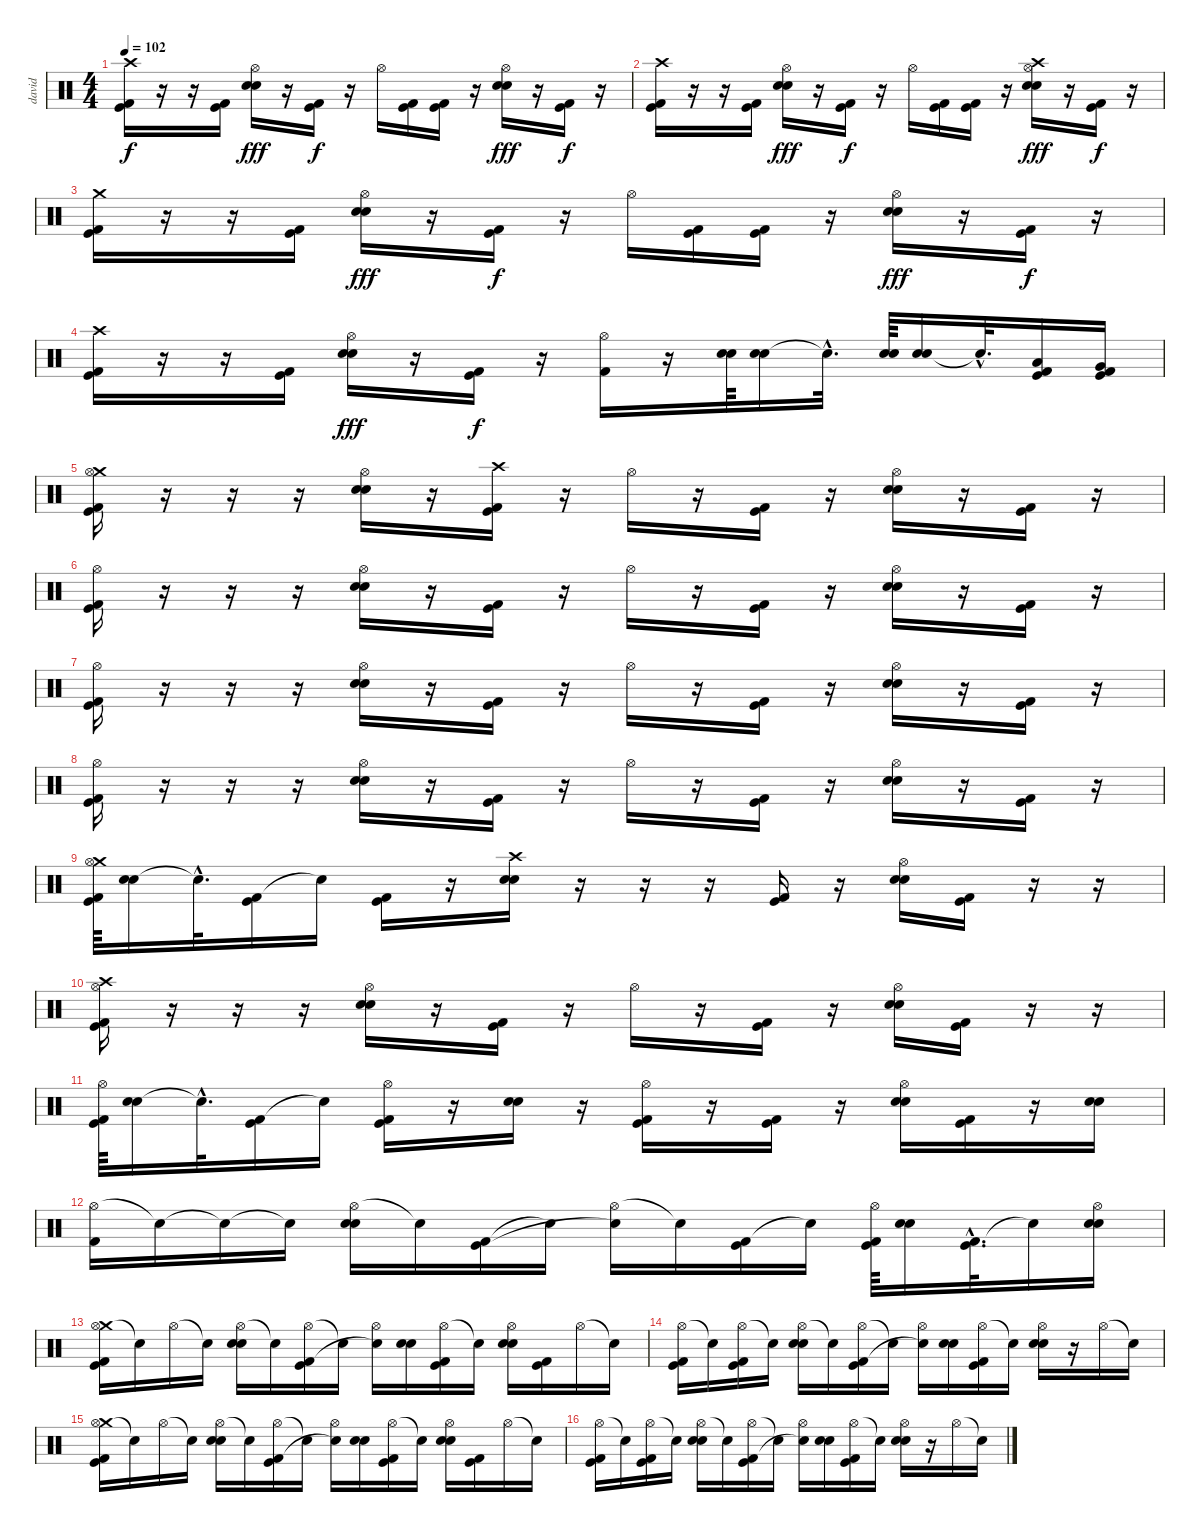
\track ("david" "david") {instrument percussion}
\staff {score}
\articulation defaults
\ts (4 4)
\tempo 102
\clef neutral
\ks c
("Crash high (hit)" "Kick (hit) 2" "Kick (hit)").16{dy f} r.16 r.16 ("Kick (hit) 2" "Kick (hit)").16 ("Hi-Hat (open)" "Electric Snare (hit)" "Snare (hit) 2").16{dy fff} r.16 ("Kick (hit) 2" "Kick (hit)").16{dy f} r.16 "Hi-Hat (open)".16 ("Kick (hit) 2" "Kick (hit)").16 ("Kick (hit) 2" "Kick (hit)").16 r.16 ("Hi-Hat (open)" "Electric Snare (hit)" "Snare (hit) 2").16{dy fff} r.16 ("Kick (hit) 2" "Kick (hit)").16{dy f} r.16 |
("Crash high (hit)" "Kick (hit) 2" "Kick (hit)").16 r.16 r.16 ("Kick (hit) 2" "Kick (hit)").16 ("Hi-Hat (open)" "Electric Snare (hit)" "Snare (hit) 2").16{dy fff} r.16 ("Kick (hit) 2" "Kick (hit)").16{dy f} r.16 "Hi-Hat (open)".16 ("Kick (hit) 2" "Kick (hit)").16 ("Kick (hit) 2" "Kick (hit)").16 r.16 ("Hi-Hat (open)" "Crash high (hit)" "Electric Snare (hit)" "Snare (hit) 2").16{dy fff} r.16 ("Kick (hit) 2" "Kick (hit)").16{dy f} r.16 |
("Crash medium (hit)" "Kick (hit) 2" "Kick (hit)").16 r.16 r.16 ("Kick (hit) 2" "Kick (hit)").16 ("Hi-Hat (open)" "Electric Snare (hit)" "Snare (hit) 2").16{dy fff} r.16 ("Kick (hit) 2" "Kick (hit)").16{dy f} r.16 "Hi-Hat (open)".16 ("Kick (hit) 2" "Kick (hit)").16 ("Kick (hit) 2" "Kick (hit)").16 r.16 ("Hi-Hat (open)" "Electric Snare (hit)" "Snare (hit) 2").16{dy fff} r.16 ("Kick (hit) 2" "Kick (hit)").16{dy f} r.16 |
("Crash high (hit)" "Kick (hit) 2" "Kick (hit)").16 r.16 r.16 ("Kick (hit) 2" "Kick (hit)").16 ("Hi-Hat (open)" "Electric Snare (hit)" "Snare (hit) 2").16{dy fff} r.16 ("Kick (hit) 2" "Kick (hit)").16{dy f} r.16 ("Hi-Hat (open)" "Kick (hit) 2").16 r.16 ("Electric Snare (hit)" "Snare (hit) 2").64 ("Electric Snare (hit)" "Snare (hit) 2").16 "Electric Snare (hit)"{hac t}.32{d} ("Electric Snare (hit)" "Snare (hit) 2").64 ("Electric Snare (hit)" "Snare (hit) 2").16 "Snare (hit)"{hac t}.32{d} ("Low Tom (hit)" "Kick (hit) 2" "Kick (hit)").16 ("Very Low Tom (hit)" "Kick (hit) 2" "Kick (hit)").16 |
("Crash medium (hit)" "Hi-Hat (open)" "Kick (hit) 2" "Kick (hit)").16 r.16 r.16 r.16 ("Hi-Hat (open)" "Electric Snare (hit)" "Snare (hit) 2").16 r.16 ("Crash high (hit)" "Kick (hit) 2" "Kick (hit)").16 r.16 "Hi-Hat (open)".16 r.16 ("Kick (hit) 2" "Kick (hit)").16 r.16 ("Hi-Hat (open)" "Electric Snare (hit)" "Snare (hit) 2").16 r.16 ("Kick (hit) 2" "Kick (hit)").16 r.16 |
("Hi-Hat (open)" "Kick (hit) 2" "Kick (hit)").16 r.16 r.16 r.16 ("Hi-Hat (open)" "Electric Snare (hit)" "Snare (hit) 2").16 r.16 ("Kick (hit) 2" "Kick (hit)").16 r.16 "Hi-Hat (open)".16 r.16 ("Kick (hit) 2" "Kick (hit)").16 r.16 ("Hi-Hat (open)" "Electric Snare (hit)" "Snare (hit) 2").16 r.16 ("Kick (hit) 2" "Kick (hit)").16 r.16 |
("Hi-Hat (open)" "Kick (hit) 2" "Kick (hit)").16 r.16 r.16 r.16 ("Hi-Hat (open)" "Electric Snare (hit)" "Snare (hit) 2").16 r.16 ("Kick (hit) 2" "Kick (hit)").16 r.16 "Hi-Hat (open)".16 r.16 ("Kick (hit) 2" "Kick (hit)").16 r.16 ("Hi-Hat (open)" "Electric Snare (hit)" "Snare (hit) 2").16 r.16 ("Kick (hit) 2" "Kick (hit)").16 r.16 |
("Hi-Hat (open)" "Kick (hit) 2" "Kick (hit)").16 r.16 r.16 r.16 ("Hi-Hat (open)" "Electric Snare (hit)" "Snare (hit) 2").16 r.16 ("Kick (hit) 2" "Kick (hit)").16 r.16 "Hi-Hat (open)".16 r.16 ("Kick (hit) 2" "Kick (hit)").16 r.16 ("Hi-Hat (open)" "Electric Snare (hit)" "Snare (hit) 2").16 r.16 ("Kick (hit) 2" "Kick (hit)").16 r.16 |
("Crash medium (hit)" "Hi-Hat (open)" "Kick (hit) 2" "Kick (hit)").64 ("Electric Snare (hit)" "Snare (hit) 2").16 "Snare (hit)"{hac t}.32{d} ("Kick (hit) 2" "Kick (hit)").16 "Snare (hit)"{t}.16 ("Kick (hit) 2" "Kick (hit)").16 r.16 ("Crash high (hit)" "Electric Snare (hit)" "Snare (hit) 2").16 r.16 r.16 r.16 ("Kick (hit) 2" "Kick (hit)").16 r.16 ("Hi-Hat (open)" "Electric Snare (hit)" "Snare (hit) 2").16 ("Kick (hit) 2" "Kick (hit)").16 r.16 r.16 |
("Hi-Hat (open)" "Crash high (hit)" "Kick (hit) 2" "Kick (hit)").16 r.16 r.16 r.16 ("Hi-Hat (open)" "Electric Snare (hit)" "Snare (hit) 2").16 r.16 ("Kick (hit) 2" "Kick (hit)").16 r.16 "Hi-Hat (open)".16 r.16 ("Kick (hit) 2" "Kick (hit)").16 r.16 ("Hi-Hat (open)" "Electric Snare (hit)" "Snare (hit) 2").16 ("Kick (hit) 2" "Kick (hit)").16 r.16 r.16 |
("Hi-Hat (open)" "Kick (hit) 2" "Kick (hit)").64 ("Electric Snare (hit)" "Snare (hit) 2").16 "Snare (hit)"{hac t}.32{d} ("Kick (hit) 2" "Kick (hit)").16 "Snare (hit)"{t}.16 ("Hi-Hat (open)" "Kick (hit) 2" "Kick (hit)").16 r.16 ("Electric Snare (hit)" "Snare (hit) 2").16 r.16 ("Hi-Hat (open)" "Kick (hit) 2" "Kick (hit)").16 r.16 ("Kick (hit) 2" "Kick (hit)").16 r.16 ("Hi-Hat (open)" "Electric Snare (hit)" "Snare (hit) 2").16 ("Kick (hit) 2" "Kick (hit)").16 r.16 ("Electric Snare (hit)" "Snare (hit) 2").16 |
("Hi-Hat (open)" "Kick (hit) 2").16 "Snare (hit)"{t}.16 "Snare (hit)"{t}.16 "Snare (hit)"{t}.16 ("Hi-Hat (open)" "Electric Snare (hit)" "Snare (hit) 2").16 "Snare (hit)"{t}.16 ("Kick (hit) 2" "Kick (hit)").16 "Snare (hit)"{t}.16 ("Hi-Hat (open)" "Snare (hit)"{t}).16 "Snare (hit)"{t}.16 ("Kick (hit) 2" "Kick (hit)").16 "Snare (hit)"{t}.16 ("Hi-Hat (open)" "Kick (hit) 2" "Kick (hit)").64 ("Electric Snare (hit)" "Snare (hit) 2").16 ("Kick (hit) 2"{hac} "Kick (hit)"{hac}).32{d} "Snare (hit)"{t}.16 ("Hi-Hat (open)" "Electric Snare (hit)" "Snare (hit) 2").16 |
("Crash medium (hit)" "Hi-Hat (open)" "Kick (hit) 2" "Kick (hit)").16 "Snare (hit)"{t}.16 "Hi-Hat (open)".16 "Snare (hit)"{t}.16 ("Hi-Hat (open)" "Electric Snare (hit)" "Snare (hit) 2").16 "Snare (hit)"{t}.16 ("Hi-Hat (open)" "Kick (hit) 2" "Kick (hit)").16 "Snare (hit)"{t}.16 ("Hi-Hat (open)" "Snare (hit)"{t}).16 ("Electric Snare (hit)" "Snare (hit) 2").16 ("Hi-Hat (open)" "Kick (hit) 2" "Kick (hit)").16 "Snare (hit)"{t}.16 ("Hi-Hat (open)" "Electric Snare (hit)" "Snare (hit) 2").16 ("Kick (hit) 2" "Kick (hit)").16 "Hi-Hat (open)".16 "Snare (hit)"{t}.16 |
("Hi-Hat (open)" "Kick (hit) 2" "Kick (hit)").16 "Snare (hit)"{t}.16 ("Hi-Hat (open)" "Kick (hit) 2" "Kick (hit)").16 "Snare (hit)"{t}.16 ("Hi-Hat (open)" "Electric Snare (hit)" "Snare (hit) 2").16 "Snare (hit)"{t}.16 ("Hi-Hat (open)" "Kick (hit) 2" "Kick (hit)").16 "Snare (hit)"{t}.16 ("Hi-Hat (open)" "Snare (hit)"{t}).16 ("Electric Snare (hit)" "Snare (hit) 2").16 ("Hi-Hat (open)" "Kick (hit) 2" "Kick (hit)").16 "Snare (hit)"{t}.16 ("Hi-Hat (open)" "Electric Snare (hit)" "Snare (hit) 2").16 r.16 "Hi-Hat (open)".16 "Snare (hit)"{t}.16 |
("Crash medium (hit)" "Hi-Hat (open)" "Kick (hit) 2" "Kick (hit)").16 "Snare (hit)"{t}.16 "Hi-Hat (open)".16 "Snare (hit)"{t}.16 ("Hi-Hat (open)" "Electric Snare (hit)" "Snare (hit) 2").16 "Snare (hit)"{t}.16 ("Hi-Hat (open)" "Kick (hit) 2" "Kick (hit)").16 "Snare (hit)"{t}.16 ("Hi-Hat (open)" "Snare (hit)"{t}).16 ("Electric Snare (hit)" "Snare (hit) 2").16 ("Hi-Hat (open)" "Kick (hit) 2" "Kick (hit)").16 "Snare (hit)"{t}.16 ("Hi-Hat (open)" "Electric Snare (hit)" "Snare (hit) 2").16 ("Kick (hit) 2" "Kick (hit)").16 "Hi-Hat (open)".16 "Snare (hit)"{t}.16 |
("Hi-Hat (open)" "Kick (hit) 2" "Kick (hit)").16 "Snare (hit)"{t}.16 ("Hi-Hat (open)" "Kick (hit) 2" "Kick (hit)").16 "Snare (hit)"{t}.16 ("Hi-Hat (open)" "Electric Snare (hit)" "Snare (hit) 2").16 "Snare (hit)"{t}.16 ("Hi-Hat (open)" "Kick (hit) 2" "Kick (hit)").16 "Snare (hit)"{t}.16 ("Hi-Hat (open)" "Snare (hit)"{t}).16 ("Electric Snare (hit)" "Snare (hit) 2").16 ("Hi-Hat (open)" "Kick (hit) 2" "Kick (hit)").16 "Snare (hit)"{t}.16 ("Hi-Hat (open)" "Electric Snare (hit)" "Snare (hit) 2").16 r.16 "Hi-Hat (open)".16 "Snare (hit)"{t}.16
